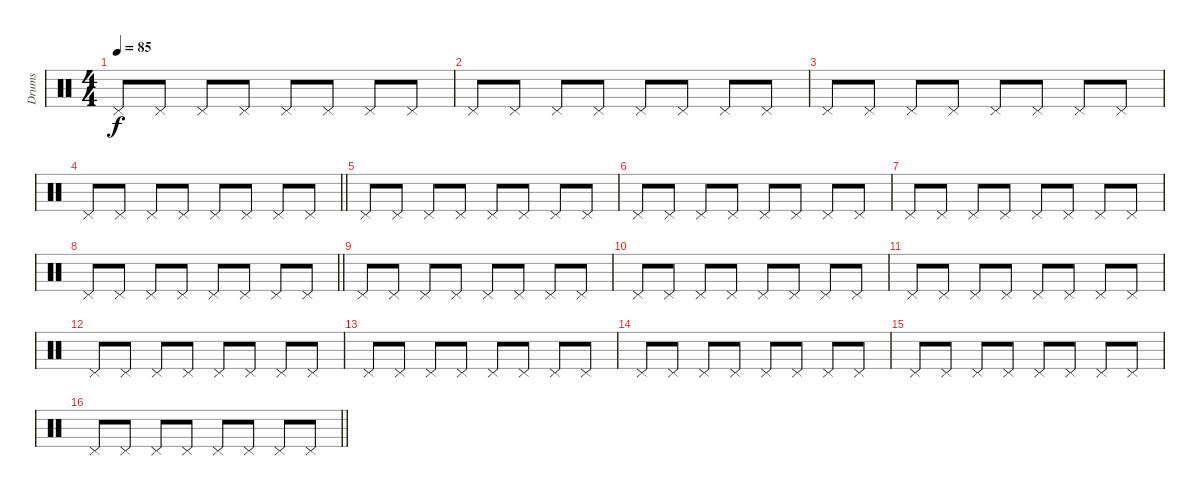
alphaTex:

\track ("Drums" "Drums") {solo instrument percussion}
\staff {score}
\articulation defaults
\ts (4 4)
\tempo 85
\clef neutral
\ks c "Pedal Hi-Hat (hit)".8{dy f} "Pedal Hi-Hat (hit)".8 "Pedal Hi-Hat (hit)".8 "Pedal Hi-Hat (hit)".8 "Pedal Hi-Hat (hit)".8 "Pedal Hi-Hat (hit)".8 "Pedal Hi-Hat (hit)".8 "Pedal Hi-Hat (hit)".8
|
"Pedal Hi-Hat (hit)".8 "Pedal Hi-Hat (hit)".8 "Pedal Hi-Hat (hit)".8 "Pedal Hi-Hat (hit)".8 "Pedal Hi-Hat (hit)".8 "Pedal Hi-Hat (hit)".8 "Pedal Hi-Hat (hit)".8 "Pedal Hi-Hat (hit)".8 |
"Pedal Hi-Hat (hit)".8 "Pedal Hi-Hat (hit)".8 "Pedal Hi-Hat (hit)".8 "Pedal Hi-Hat (hit)".8 "Pedal Hi-Hat (hit)".8 "Pedal Hi-Hat (hit)".8 "Pedal Hi-Hat (hit)".8 "Pedal Hi-Hat (hit)".8 |
\barLineRight lightlight "Pedal Hi-Hat (hit)".8 "Pedal Hi-Hat (hit)".8 "Pedal Hi-Hat (hit)".8 "Pedal Hi-Hat (hit)".8 "Pedal Hi-Hat (hit)".8 "Pedal Hi-Hat (hit)".8 "Pedal Hi-Hat (hit)".8 "Pedal Hi-Hat (hit)".8
|
\section ("" "")
"Pedal Hi-Hat (hit)".8 "Pedal Hi-Hat (hit)".8 "Pedal Hi-Hat (hit)".8 "Pedal Hi-Hat (hit)".8 "Pedal Hi-Hat (hit)".8 "Pedal Hi-Hat (hit)".8 "Pedal Hi-Hat (hit)".8 "Pedal Hi-Hat (hit)".8 |
"Pedal Hi-Hat (hit)".8 "Pedal Hi-Hat (hit)".8 "Pedal Hi-Hat (hit)".8 "Pedal Hi-Hat (hit)".8 "Pedal Hi-Hat (hit)".8 "Pedal Hi-Hat (hit)".8 "Pedal Hi-Hat (hit)".8 "Pedal Hi-Hat (hit)".8 |
"Pedal Hi-Hat (hit)".8 "Pedal Hi-Hat (hit)".8 "Pedal Hi-Hat (hit)".8 "Pedal Hi-Hat (hit)".8 "Pedal Hi-Hat (hit)".8 "Pedal Hi-Hat (hit)".8 "Pedal Hi-Hat (hit)".8 "Pedal Hi-Hat (hit)".8 |
\barLineRight lightlight "Pedal Hi-Hat (hit)".8 "Pedal Hi-Hat (hit)".8 "Pedal Hi-Hat (hit)".8 "Pedal Hi-Hat (hit)".8 "Pedal Hi-Hat (hit)".8 "Pedal Hi-Hat (hit)".8 "Pedal Hi-Hat (hit)".8 "Pedal Hi-Hat (hit)".8
|
\section ("" "")
"Pedal Hi-Hat (hit)".8 "Pedal Hi-Hat (hit)".8 "Pedal Hi-Hat (hit)".8 "Pedal Hi-Hat (hit)".8 "Pedal Hi-Hat (hit)".8 "Pedal Hi-Hat (hit)".8 "Pedal Hi-Hat (hit)".8 "Pedal Hi-Hat (hit)".8 |
"Pedal Hi-Hat (hit)".8 "Pedal Hi-Hat (hit)".8 "Pedal Hi-Hat (hit)".8 "Pedal Hi-Hat (hit)".8 "Pedal Hi-Hat (hit)".8 "Pedal Hi-Hat (hit)".8 "Pedal Hi-Hat (hit)".8 "Pedal Hi-Hat (hit)".8 |
"Pedal Hi-Hat (hit)".8 "Pedal Hi-Hat (hit)".8 "Pedal Hi-Hat (hit)".8 "Pedal Hi-Hat (hit)".8 "Pedal Hi-Hat (hit)".8 "Pedal Hi-Hat (hit)".8 "Pedal Hi-Hat (hit)".8 "Pedal Hi-Hat (hit)".8 |
"Pedal Hi-Hat (hit)".8 "Pedal Hi-Hat (hit)".8 "Pedal Hi-Hat (hit)".8 "Pedal Hi-Hat (hit)".8 "Pedal Hi-Hat (hit)".8 "Pedal Hi-Hat (hit)".8 "Pedal Hi-Hat (hit)".8 "Pedal Hi-Hat (hit)".8 |
"Pedal Hi-Hat (hit)".8 "Pedal Hi-Hat (hit)".8 "Pedal Hi-Hat (hit)".8 "Pedal Hi-Hat (hit)".8 "Pedal Hi-Hat (hit)".8 "Pedal Hi-Hat (hit)".8 "Pedal Hi-Hat (hit)".8 "Pedal Hi-Hat (hit)".8 |
"Pedal Hi-Hat (hit)".8 "Pedal Hi-Hat (hit)".8 "Pedal Hi-Hat (hit)".8 "Pedal Hi-Hat (hit)".8 "Pedal Hi-Hat (hit)".8 "Pedal Hi-Hat (hit)".8 "Pedal Hi-Hat (hit)".8 "Pedal Hi-Hat (hit)".8 |
"Pedal Hi-Hat (hit)".8 "Pedal Hi-Hat (hit)".8 "Pedal Hi-Hat (hit)".8 "Pedal Hi-Hat (hit)".8 "Pedal Hi-Hat (hit)".8 "Pedal Hi-Hat (hit)".8 "Pedal Hi-Hat (hit)".8 "Pedal Hi-Hat (hit)".8 |
\barLineRight lightlight "Pedal Hi-Hat (hit)".8 "Pedal Hi-Hat (hit)".8 "Pedal Hi-Hat (hit)".8 "Pedal Hi-Hat (hit)".8 "Pedal Hi-Hat (hit)".8 "Pedal Hi-Hat (hit)".8 "Pedal Hi-Hat (hit)".8 "Pedal Hi-Hat (hit)".8
